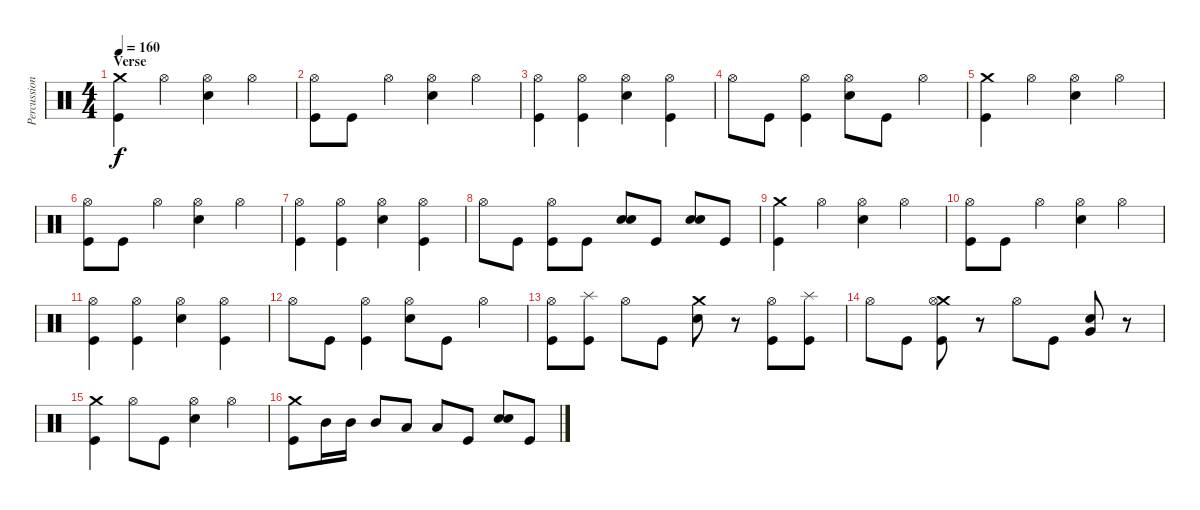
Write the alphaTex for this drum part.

\track ("Percussion" "Percussion") {instrument percussion}
\staff {score}
\articulation defaults
\ts (4 4)
\section ("" "Verse")
\tempo 160
\clef neutral
\ks c
("Crash medium (hit)" "Kick (hit)").4{dy f} "Hi-Hat (open)".4 ("Hi-Hat (open)" "Snare (hit) 2").4 "Hi-Hat (open)".4 |
("Hi-Hat (open)" "Kick (hit)").8 "Kick (hit)".8 "Hi-Hat (open)".4 ("Hi-Hat (open)" "Snare (hit) 2").4 "Hi-Hat (open)".4 |
("Hi-Hat (open)" "Kick (hit)").4 ("Hi-Hat (open)" "Kick (hit)").4 ("Hi-Hat (open)" "Snare (hit) 2").4 ("Hi-Hat (open)" "Kick (hit)").4 |
"Hi-Hat (open)".8 "Kick (hit)".8 ("Hi-Hat (open)" "Kick (hit)").4 ("Hi-Hat (open)" "Snare (hit) 2").8 "Kick (hit)".8 "Hi-Hat (open)".4 |
("Crash medium (hit)" "Kick (hit)").4 "Hi-Hat (open)".4 ("Hi-Hat (open)" "Snare (hit) 2").4 "Hi-Hat (open)".4 |
("Hi-Hat (open)" "Kick (hit)").8 "Kick (hit)".8 "Hi-Hat (open)".4 ("Hi-Hat (open)" "Snare (hit) 2").4 "Hi-Hat (open)".4 |
("Hi-Hat (open)" "Kick (hit)").4 ("Hi-Hat (open)" "Kick (hit)").4 ("Hi-Hat (open)" "Snare (hit) 2").4 ("Hi-Hat (open)" "Kick (hit)").4 |
"Hi-Hat (open)".8 "Kick (hit)".8 ("Hi-Hat (open)" "Kick (hit)").8 "Kick (hit)".8 ("Snare (hit) 2" "Snare (hit) 2").8{bd 60} "Kick (hit)".8 ("Snare (hit) 2" "Snare (hit) 2").8{bd 60} "Kick (hit)".8 |
("Crash medium (hit)" "Kick (hit)").4 "Hi-Hat (open)".4 ("Hi-Hat (open)" "Snare (hit) 2").4 "Hi-Hat (open)".4 |
("Hi-Hat (open)" "Kick (hit)").8 "Kick (hit)".8 "Hi-Hat (open)".4 ("Hi-Hat (open)" "Snare (hit) 2").4 "Hi-Hat (open)".4 |
("Hi-Hat (open)" "Kick (hit)").4 ("Hi-Hat (open)" "Kick (hit)").4 ("Hi-Hat (open)" "Snare (hit) 2").4 ("Hi-Hat (open)" "Kick (hit)").4 |
"Hi-Hat (open)".8 "Kick (hit)".8 ("Hi-Hat (open)" "Kick (hit)").4 ("Hi-Hat (open)" "Snare (hit) 2").8 "Kick (hit)".8 "Hi-Hat (open)".4 |
("Hi-Hat (open)" "Kick (hit)").8 ("Splash (hit)" "Kick (hit)").8 "Hi-Hat (open)".8 "Kick (hit)".8 ("Crash medium (hit)" "Snare (hit) 2").8 r.8 ("Hi-Hat (open)" "Kick (hit)").8 ("Splash (hit)" "Kick (hit)").8 |
"Hi-Hat (open)".8 "Kick (hit)".8 ("Crash medium (hit)" "Hi-Hat (open)" "Kick (hit)").8 r.8 "Hi-Hat (open)".8 "Kick (hit)".8 ("Very Low Tom (hit)" "Snare (hit) 2").8 r.8 |
("Crash medium (hit)" "Kick (hit)").4 "Hi-Hat (open)".8 "Kick (hit)".8 ("Hi-Hat (open)" "Snare (hit) 2").4 "Hi-Hat (open)".4 |
("Crash medium (hit)" "Kick (hit)").8 "Mid Tom (hit)".16 "Mid Tom (hit)".16 "Mid Tom (hit)".8 "Low Tom (hit)".8 "Low Tom (hit)".8 "Kick (hit)".8 ("Snare (hit) 2" "Snare (hit) 2").8 "Kick (hit)".8
